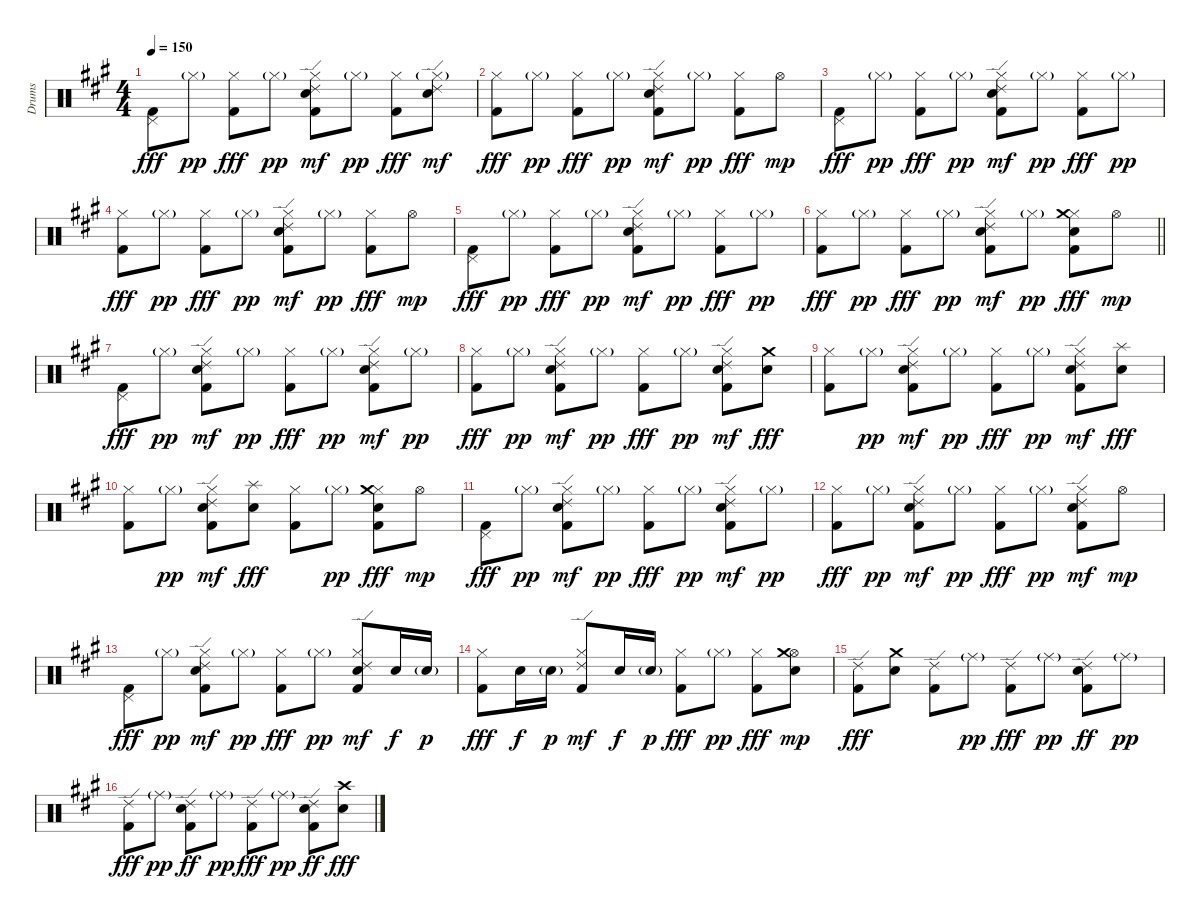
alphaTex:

\track ("Drums" "Drums") {instrument percussion}
\staff {score}
\articulation defaults
\ts (4 4)
\tempo 150
\clef neutral
\ks a
("Kick (hit) 2" "Pedal Hi-Hat (hit)").8{dy fff} "Hi-Hat (closed)"{g}.8{dy pp} ("Kick (hit) 2" "Hi-Hat (closed)").8{dy fff} "Hi-Hat (closed)"{g}.8{dy pp} ("Kick (hit) 2" "Electric Snare (hit)" "Hi-Hat (closed)" "Ride (edge) 2").8{dy mf} "Hi-Hat (closed)"{g}.8{dy pp} ("Kick (hit) 2" "Hi-Hat (closed)").8{dy fff} ("Electric Snare (hit)" "Hi-Hat (closed)"{g} "Ride (edge) 2").8{dy mf} |
("Kick (hit) 2" "Hi-Hat (closed)").8{dy fff} "Hi-Hat (closed)"{g}.8{dy pp} ("Kick (hit) 2" "Hi-Hat (closed)").8{dy fff} "Hi-Hat (closed)"{g}.8{dy pp} ("Kick (hit) 2" "Electric Snare (hit)" "Hi-Hat (closed)" "Ride (edge) 2").8{dy mf} "Hi-Hat (closed)"{g}.8{dy pp} ("Kick (hit) 2" "Hi-Hat (closed)").8{dy fff} "Hi-Hat (open)".8{dy mp} |
("Kick (hit) 2" "Pedal Hi-Hat (hit)").8{dy fff} "Hi-Hat (closed)"{g}.8{dy pp} ("Kick (hit) 2" "Hi-Hat (closed)").8{dy fff} "Hi-Hat (closed)"{g}.8{dy pp} ("Kick (hit) 2" "Electric Snare (hit)" "Hi-Hat (closed)" "Ride (edge) 2").8{dy mf} "Hi-Hat (closed)"{g}.8{dy pp} ("Kick (hit) 2" "Hi-Hat (closed)").8{dy fff} "Hi-Hat (closed)"{g}.8{dy pp} |
("Kick (hit) 2" "Hi-Hat (closed)").8{dy fff} "Hi-Hat (closed)"{g}.8{dy pp} ("Kick (hit) 2" "Hi-Hat (closed)").8{dy fff} "Hi-Hat (closed)"{g}.8{dy pp} ("Kick (hit) 2" "Electric Snare (hit)" "Hi-Hat (closed)" "Ride (edge) 2").8{dy mf} "Hi-Hat (closed)"{g}.8{dy pp} ("Kick (hit) 2" "Hi-Hat (closed)").8{dy fff} "Hi-Hat (open)".8{dy mp} |
("Kick (hit) 2" "Pedal Hi-Hat (hit)").8{dy fff} "Hi-Hat (closed)"{g}.8{dy pp} ("Kick (hit) 2" "Hi-Hat (closed)").8{dy fff} "Hi-Hat (closed)"{g}.8{dy pp} ("Kick (hit) 2" "Electric Snare (hit)" "Hi-Hat (closed)" "Ride (edge) 2").8{dy mf} "Hi-Hat (closed)"{g}.8{dy pp} ("Kick (hit) 2" "Hi-Hat (closed)").8{dy fff} "Hi-Hat (closed)"{g}.8{dy pp} |
\barLineRight lightlight
("Kick (hit) 2" "Hi-Hat (closed)").8{dy fff} "Hi-Hat (closed)"{g}.8{dy pp} ("Kick (hit) 2" "Hi-Hat (closed)").8{dy fff} "Hi-Hat (closed)"{g}.8{dy pp} ("Kick (hit) 2" "Electric Snare (hit)" "Hi-Hat (closed)" "Ride (edge) 2").8{dy mf} "Hi-Hat (closed)"{g}.8{dy pp} ("Kick (hit) 2" "Electric Snare (hit)" "Hi-Hat (closed)" "Crash medium (hit)").8{dy fff} "Hi-Hat (open)".8{dy mp} |
("Kick (hit) 2" "Pedal Hi-Hat (hit)").8{dy fff} "Hi-Hat (closed)"{g}.8{dy pp} ("Kick (hit) 2" "Electric Snare (hit)" "Hi-Hat (closed)" "Ride (edge) 2").8{dy mf} "Hi-Hat (closed)"{g}.8{dy pp} ("Kick (hit) 2" "Hi-Hat (closed)").8{dy fff} "Hi-Hat (closed)"{g}.8{dy pp} ("Kick (hit) 2" "Electric Snare (hit)" "Hi-Hat (closed)" "Ride (edge) 2").8{dy mf} "Hi-Hat (closed)"{g}.8{dy pp} |
("Kick (hit) 2" "Hi-Hat (closed)").8{dy fff} "Hi-Hat (closed)"{g}.8{dy pp} ("Kick (hit) 2" "Electric Snare (hit)" "Hi-Hat (closed)" "Ride (edge) 2").8{dy mf} "Hi-Hat (closed)"{g}.8{dy pp} ("Kick (hit) 2" "Hi-Hat (closed)").8{dy fff} "Hi-Hat (closed)"{g}.8{dy pp} ("Kick (hit) 2" "Electric Snare (hit)" "Hi-Hat (closed)" "Ride (edge) 2").8{dy mf} ("Electric Snare (hit)" "Crash medium (hit)").8{dy fff} |
("Kick (hit) 2" "Hi-Hat (closed)").8 "Hi-Hat (closed)"{g}.8{dy pp} ("Kick (hit) 2" "Electric Snare (hit)" "Hi-Hat (closed)" "Ride (edge) 2").8{dy mf} "Hi-Hat (closed)"{g}.8{dy pp} ("Kick (hit) 2" "Hi-Hat (closed)").8{dy fff} "Hi-Hat (closed)"{g}.8{dy pp} ("Kick (hit) 2" "Electric Snare (hit)" "Hi-Hat (closed)" "Ride (edge) 2").8{dy mf} ("Electric Snare (hit)" "Splash (hit)").8{dy fff} |
("Kick (hit) 2" "Hi-Hat (closed)").8 "Hi-Hat (closed)"{g}.8{dy pp} ("Kick (hit) 2" "Electric Snare (hit)" "Hi-Hat (closed)" "Ride (edge) 2").8{dy mf} ("Electric Snare (hit)" "Splash (hit)").8{dy fff} ("Kick (hit) 2" "Hi-Hat (closed)").8 "Hi-Hat (closed)"{g}.8{dy pp} ("Kick (hit) 2" "Electric Snare (hit)" "Hi-Hat (closed)" "Crash medium (hit)").8{dy fff} "Hi-Hat (open)".8{dy mp} |
("Kick (hit) 2" "Pedal Hi-Hat (hit)").8{dy fff} "Hi-Hat (closed)"{g}.8{dy pp} ("Kick (hit) 2" "Electric Snare (hit)" "Hi-Hat (closed)" "Ride (edge) 2").8{dy mf} "Hi-Hat (closed)"{g}.8{dy pp} ("Kick (hit) 2" "Hi-Hat (closed)").8{dy fff} "Hi-Hat (closed)"{g}.8{dy pp} ("Kick (hit) 2" "Electric Snare (hit)" "Hi-Hat (closed)" "Ride (edge) 2").8{dy mf} "Hi-Hat (closed)"{g}.8{dy pp} |
("Kick (hit) 2" "Hi-Hat (closed)").8{dy fff} "Hi-Hat (closed)"{g}.8{dy pp} ("Kick (hit) 2" "Electric Snare (hit)" "Hi-Hat (closed)" "Ride (edge) 2").8{dy mf} "Hi-Hat (closed)"{g}.8{dy pp} ("Kick (hit) 2" "Hi-Hat (closed)").8{dy fff} "Hi-Hat (closed)"{g}.8{dy pp} ("Kick (hit) 2" "Electric Snare (hit)" "Hi-Hat (closed)" "Ride (edge) 2").8{dy mf} "Hi-Hat (open)".8{dy mp} |
("Kick (hit) 2" "Pedal Hi-Hat (hit)").8{dy fff} "Hi-Hat (closed)"{g}.8{dy pp} ("Kick (hit) 2" "Electric Snare (hit)" "Hi-Hat (closed)" "Ride (edge) 2").8{dy mf} "Hi-Hat (closed)"{g}.8{dy pp} ("Kick (hit) 2" "Hi-Hat (closed)").8{dy fff} "Hi-Hat (closed)"{g}.8{dy pp} ("Kick (hit) 2" "Electric Snare (hit)" "Hi-Hat (closed)" "Ride (edge) 2").8{dy mf} "Electric Snare (hit)".16{dy f} "Electric Snare (hit)"{g}.16{dy p} |
("Kick (hit) 2" "Hi-Hat (closed)").8{dy fff} "Electric Snare (hit)".16{dy f} "Electric Snare (hit)"{g}.16{dy p} ("Kick (hit) 2" "Hi-Hat (closed)" "Ride (edge) 2").8{dy mf} "Electric Snare (hit)".16{dy f} "Electric Snare (hit)"{g}.16{dy p} ("Kick (hit) 2" "Hi-Hat (closed)").8{dy fff} "Hi-Hat (closed)"{g}.8{dy pp} ("Kick (hit) 2" "Hi-Hat (closed)").8{dy fff} ("Electric Snare (hit)" "Hi-Hat (open)" "Crash medium (hit)").8{dy mp} |
("Kick (hit) 2" "Ride (edge) 2").8{dy fff} ("Electric Snare (hit)" "Crash medium (hit)").8 ("Kick (hit) 2" "Ride (edge) 2").8 "Ride (middle)"{g}.8{dy pp} ("Kick (hit) 2" "Ride (edge) 2").8{dy fff} "Ride (middle)"{g}.8{dy pp} ("Kick (hit) 2" "Electric Snare (hit)" "Ride (edge) 2").8{dy ff} "Ride (middle)"{g}.8{dy pp} |
("Kick (hit) 2" "Ride (edge) 2").8{dy fff} "Ride (middle)"{g}.8{dy pp} ("Kick (hit) 2" "Electric Snare (hit)" "Ride (edge) 2").8{dy ff} "Ride (middle)"{g}.8{dy pp} ("Kick (hit) 2" "Ride (edge) 2").8{dy fff} "Ride (middle)"{g}.8{dy pp} ("Kick (hit) 2" "Electric Snare (hit)" "Ride (edge) 2").8{dy ff} ("Electric Snare (hit)" "Crash high (hit)").8{dy fff}
